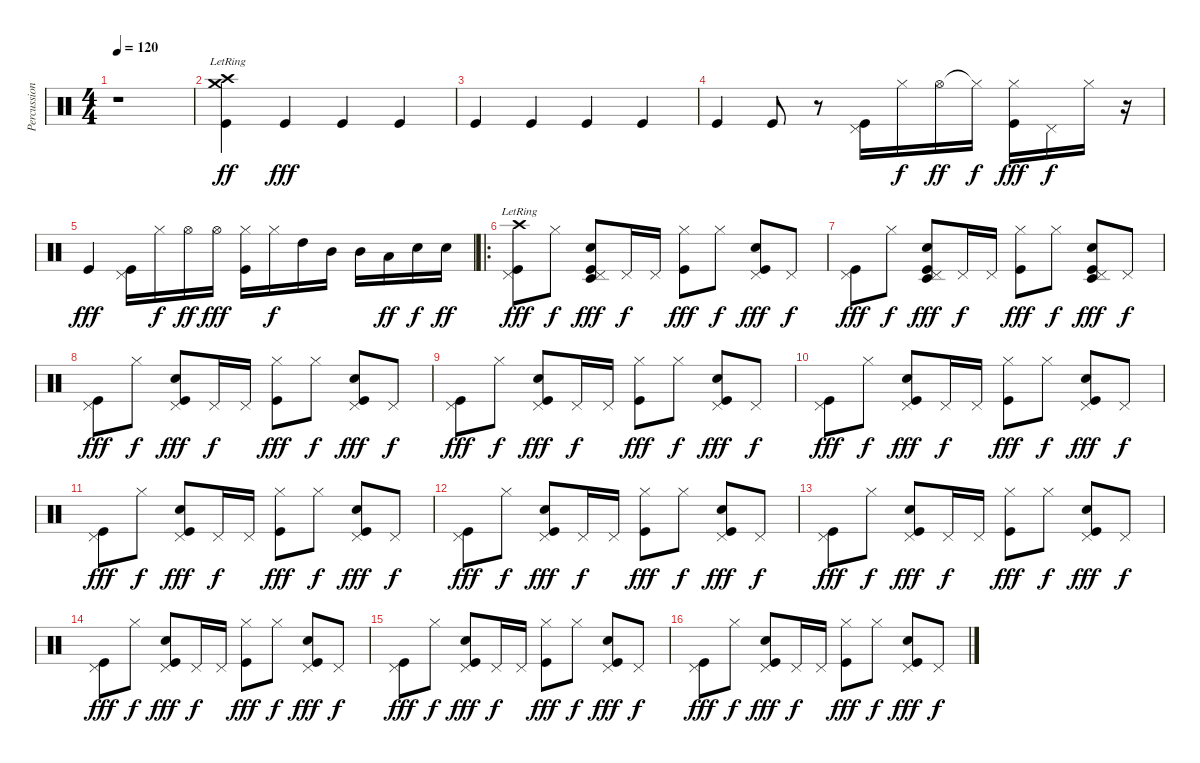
\track ("Percussions" "Percussion") {instrument percussion}
\staff {score}
\articulation defaults
\ts (4 4)
\tempo 120
\clef neutral
\ks c
r.1{dy ff} |
("Crash high (hit)"{lr} "Kick (hit)" "Crash medium (hit)"{lr}).4 "Kick (hit)".4{dy fff} "Kick (hit)".4 "Kick (hit)".4 |
"Kick (hit)".4 "Kick (hit)".4 "Kick (hit)".4 "Kick (hit)".4 |
"Kick (hit)".4 "Kick (hit)".8 r.8 ("Pedal Hi-Hat (hit)" "Kick (hit)").16 "Hi-Hat (closed)".16{dy f} "Hi-Hat (open)".16{dy ff} "Hi-Hat (closed)"{t}.16{dy f} ("Hi-Hat (closed)" "Kick (hit)").16{dy fff} "Pedal Hi-Hat (hit)".16{dy f} "Hi-Hat (closed)".16 r.16 |
"Kick (hit)".4{dy fff} ("Pedal Hi-Hat (hit)" "Kick (hit)").16 "Hi-Hat (closed)".16{dy f} "Hi-Hat (open)".16{dy ff} "Hi-Hat (open)".16{dy fff} ("Hi-Hat (closed)" "Kick (hit)").16 "Hi-Hat (closed)".16{dy f} "High Tom (hit)".16 "Mid Tom (hit)".16 "Mid Tom (hit)".16 "Low Tom (hit)".16{dy ff} "Electric Snare (hit)".16{dy f} "Electric Snare (hit)".16{dy ff} |
\ro
("Pedal Hi-Hat (hit)" "Kick (hit)" "Crash high (hit)"{lr}).8{dy fff} "Hi-Hat (closed)".8{dy f} ("Pedal Hi-Hat (hit)" "Kick (hit)" "Electric Snare (hit)" "Timbale low (hit)").8{dy fff} "Pedal Hi-Hat (hit)".16{dy f} "Pedal Hi-Hat (hit)".16 ("Hi-Hat (closed)" "Kick (hit)").8{dy fff} "Hi-Hat (closed)".8{dy f} ("Pedal Hi-Hat (hit)" "Kick (hit)" "Electric Snare (hit)").8{dy fff} "Pedal Hi-Hat (hit)".8{dy f} |
("Pedal Hi-Hat (hit)" "Kick (hit)").8{dy fff} "Hi-Hat (closed)".8{dy f} ("Pedal Hi-Hat (hit)" "Kick (hit)" "Electric Snare (hit)" "Timbale low (hit)").8{dy fff} "Pedal Hi-Hat (hit)".16{dy f} "Pedal Hi-Hat (hit)".16 ("Hi-Hat (closed)" "Kick (hit)").8{dy fff} "Hi-Hat (closed)".8{dy f} ("Pedal Hi-Hat (hit)" "Kick (hit)" "Electric Snare (hit)" "Timbale low (hit)").8{dy fff} "Pedal Hi-Hat (hit)".8{dy f} |
("Pedal Hi-Hat (hit)" "Kick (hit)").8{dy fff} "Hi-Hat (closed)".8{dy f} ("Pedal Hi-Hat (hit)" "Kick (hit)" "Electric Snare (hit)").8{dy fff} "Pedal Hi-Hat (hit)".16{dy f} "Pedal Hi-Hat (hit)".16 ("Hi-Hat (closed)" "Kick (hit)").8{dy fff} "Hi-Hat (closed)".8{dy f} ("Pedal Hi-Hat (hit)" "Kick (hit)" "Electric Snare (hit)").8{dy fff} "Pedal Hi-Hat (hit)".8{dy f} |
("Pedal Hi-Hat (hit)" "Kick (hit)").8{dy fff} "Hi-Hat (closed)".8{dy f} ("Pedal Hi-Hat (hit)" "Kick (hit)" "Electric Snare (hit)").8{dy fff} "Pedal Hi-Hat (hit)".16{dy f} "Pedal Hi-Hat (hit)".16 ("Hi-Hat (closed)" "Kick (hit)").8{dy fff} "Hi-Hat (closed)".8{dy f} ("Pedal Hi-Hat (hit)" "Kick (hit)" "Electric Snare (hit)").8{dy fff} "Pedal Hi-Hat (hit)".8{dy f} |
("Pedal Hi-Hat (hit)" "Kick (hit)").8{dy fff} "Hi-Hat (closed)".8{dy f} ("Pedal Hi-Hat (hit)" "Kick (hit)" "Electric Snare (hit)").8{dy fff} "Pedal Hi-Hat (hit)".16{dy f} "Pedal Hi-Hat (hit)".16 ("Hi-Hat (closed)" "Kick (hit)").8{dy fff} "Hi-Hat (closed)".8{dy f} ("Pedal Hi-Hat (hit)" "Kick (hit)" "Electric Snare (hit)").8{dy fff} "Pedal Hi-Hat (hit)".8{dy f} |
("Pedal Hi-Hat (hit)" "Kick (hit)").8{dy fff} "Hi-Hat (closed)".8{dy f} ("Pedal Hi-Hat (hit)" "Kick (hit)" "Electric Snare (hit)").8{dy fff} "Pedal Hi-Hat (hit)".16{dy f} "Pedal Hi-Hat (hit)".16 ("Hi-Hat (closed)" "Kick (hit)").8{dy fff} "Hi-Hat (closed)".8{dy f} ("Pedal Hi-Hat (hit)" "Kick (hit)" "Electric Snare (hit)").8{dy fff} "Pedal Hi-Hat (hit)".8{dy f} |
("Pedal Hi-Hat (hit)" "Kick (hit)").8{dy fff} "Hi-Hat (closed)".8{dy f} ("Pedal Hi-Hat (hit)" "Kick (hit)" "Electric Snare (hit)").8{dy fff} "Pedal Hi-Hat (hit)".16{dy f} "Pedal Hi-Hat (hit)".16 ("Hi-Hat (closed)" "Kick (hit)").8{dy fff} "Hi-Hat (closed)".8{dy f} ("Pedal Hi-Hat (hit)" "Kick (hit)" "Electric Snare (hit)").8{dy fff} "Pedal Hi-Hat (hit)".8{dy f} |
("Pedal Hi-Hat (hit)" "Kick (hit)").8{dy fff} "Hi-Hat (closed)".8{dy f} ("Pedal Hi-Hat (hit)" "Kick (hit)" "Electric Snare (hit)").8{dy fff} "Pedal Hi-Hat (hit)".16{dy f} "Pedal Hi-Hat (hit)".16 ("Hi-Hat (closed)" "Kick (hit)").8{dy fff} "Hi-Hat (closed)".8{dy f} ("Pedal Hi-Hat (hit)" "Kick (hit)" "Electric Snare (hit)").8{dy fff} "Pedal Hi-Hat (hit)".8{dy f} |
("Pedal Hi-Hat (hit)" "Kick (hit)").8{dy fff} "Hi-Hat (closed)".8{dy f} ("Pedal Hi-Hat (hit)" "Kick (hit)" "Electric Snare (hit)").8{dy fff} "Pedal Hi-Hat (hit)".16{dy f} "Pedal Hi-Hat (hit)".16 ("Hi-Hat (closed)" "Kick (hit)").8{dy fff} "Hi-Hat (closed)".8{dy f} ("Pedal Hi-Hat (hit)" "Kick (hit)" "Electric Snare (hit)").8{dy fff} "Pedal Hi-Hat (hit)".8{dy f} |
("Pedal Hi-Hat (hit)" "Kick (hit)").8{dy fff} "Hi-Hat (closed)".8{dy f} ("Pedal Hi-Hat (hit)" "Kick (hit)" "Electric Snare (hit)").8{dy fff} "Pedal Hi-Hat (hit)".16{dy f} "Pedal Hi-Hat (hit)".16 ("Hi-Hat (closed)" "Kick (hit)").8{dy fff} "Hi-Hat (closed)".8{dy f} ("Pedal Hi-Hat (hit)" "Kick (hit)" "Electric Snare (hit)").8{dy fff} "Pedal Hi-Hat (hit)".8{dy f} |
("Pedal Hi-Hat (hit)" "Kick (hit)").8{dy fff} "Hi-Hat (closed)".8{dy f} ("Pedal Hi-Hat (hit)" "Kick (hit)" "Electric Snare (hit)").8{dy fff} "Pedal Hi-Hat (hit)".16{dy f} "Pedal Hi-Hat (hit)".16 ("Hi-Hat (closed)" "Kick (hit)").8{dy fff} "Hi-Hat (closed)".8{dy f} ("Pedal Hi-Hat (hit)" "Kick (hit)" "Electric Snare (hit)").8{dy fff} "Pedal Hi-Hat (hit)".8{dy f}
